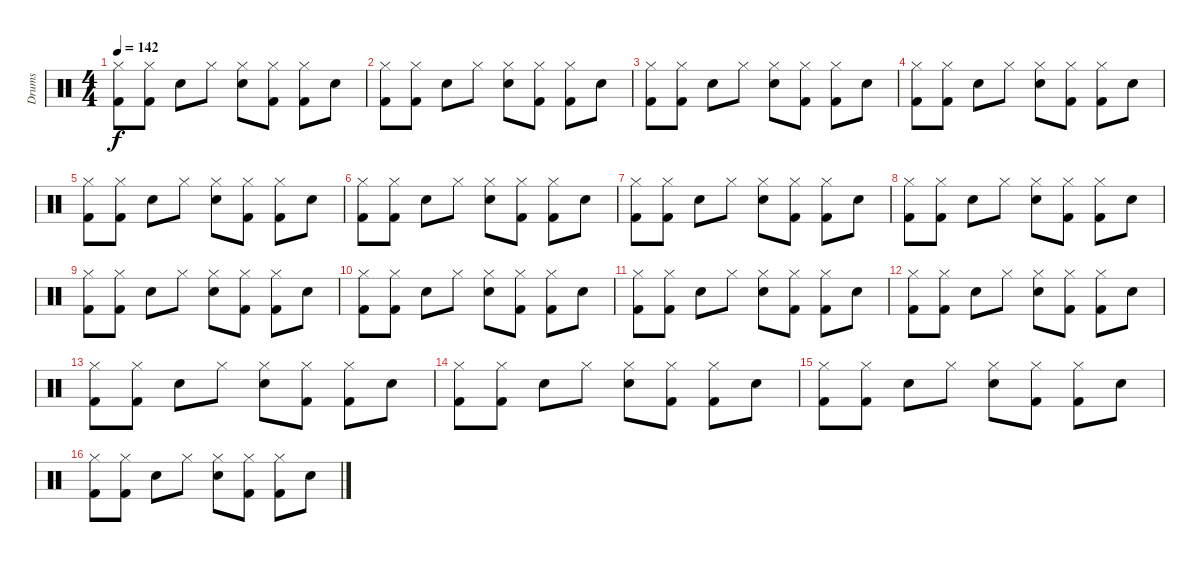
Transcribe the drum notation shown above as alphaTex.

\track ("Drums" "Drums") {instrument percussion}
\staff {score}
\articulation defaults
\ts (4 4)
\tempo 142
\clef neutral
\ks c
("Hi-Hat (closed)" "Kick (hit) 2").8{dy f} ("Hi-Hat (closed)" "Kick (hit) 2").8 "Electric Snare (hit)".8 "Hi-Hat (closed)".8 ("Hi-Hat (closed)" "Electric Snare (hit)").8 ("Hi-Hat (closed)" "Kick (hit) 2").8 ("Hi-Hat (closed)" "Kick (hit) 2").8 "Electric Snare (hit)".8 |
("Hi-Hat (closed)" "Kick (hit) 2").8 ("Hi-Hat (closed)" "Kick (hit) 2").8 "Electric Snare (hit)".8 "Hi-Hat (closed)".8 ("Hi-Hat (closed)" "Electric Snare (hit)").8 ("Hi-Hat (closed)" "Kick (hit) 2").8 ("Hi-Hat (closed)" "Kick (hit) 2").8 "Electric Snare (hit)".8 |
("Hi-Hat (closed)" "Kick (hit) 2").8 ("Hi-Hat (closed)" "Kick (hit) 2").8 "Electric Snare (hit)".8 "Hi-Hat (closed)".8 ("Hi-Hat (closed)" "Electric Snare (hit)").8 ("Hi-Hat (closed)" "Kick (hit) 2").8 ("Hi-Hat (closed)" "Kick (hit) 2").8 "Electric Snare (hit)".8 |
("Hi-Hat (closed)" "Kick (hit) 2").8 ("Hi-Hat (closed)" "Kick (hit) 2").8 "Electric Snare (hit)".8 "Hi-Hat (closed)".8 ("Hi-Hat (closed)" "Electric Snare (hit)").8 ("Hi-Hat (closed)" "Kick (hit) 2").8 ("Hi-Hat (closed)" "Kick (hit) 2").8 "Electric Snare (hit)".8 |
("Hi-Hat (closed)" "Kick (hit) 2").8 ("Hi-Hat (closed)" "Kick (hit) 2").8 "Electric Snare (hit)".8 "Hi-Hat (closed)".8 ("Hi-Hat (closed)" "Electric Snare (hit)").8 ("Hi-Hat (closed)" "Kick (hit) 2").8 ("Hi-Hat (closed)" "Kick (hit) 2").8 "Electric Snare (hit)".8 |
("Hi-Hat (closed)" "Kick (hit) 2").8 ("Hi-Hat (closed)" "Kick (hit) 2").8 "Electric Snare (hit)".8 "Hi-Hat (closed)".8 ("Hi-Hat (closed)" "Electric Snare (hit)").8 ("Hi-Hat (closed)" "Kick (hit) 2").8 ("Hi-Hat (closed)" "Kick (hit) 2").8 "Electric Snare (hit)".8 |
("Hi-Hat (closed)" "Kick (hit) 2").8 ("Hi-Hat (closed)" "Kick (hit) 2").8 "Electric Snare (hit)".8 "Hi-Hat (closed)".8 ("Hi-Hat (closed)" "Electric Snare (hit)").8 ("Hi-Hat (closed)" "Kick (hit) 2").8 ("Hi-Hat (closed)" "Kick (hit) 2").8 "Electric Snare (hit)".8 |
("Hi-Hat (closed)" "Kick (hit) 2").8 ("Hi-Hat (closed)" "Kick (hit) 2").8 "Electric Snare (hit)".8 "Hi-Hat (closed)".8 ("Hi-Hat (closed)" "Electric Snare (hit)").8 ("Hi-Hat (closed)" "Kick (hit) 2").8 ("Hi-Hat (closed)" "Kick (hit) 2").8 "Electric Snare (hit)".8 |
("Hi-Hat (closed)" "Kick (hit) 2").8 ("Hi-Hat (closed)" "Kick (hit) 2").8 "Electric Snare (hit)".8 "Hi-Hat (closed)".8 ("Hi-Hat (closed)" "Electric Snare (hit)").8 ("Hi-Hat (closed)" "Kick (hit) 2").8 ("Hi-Hat (closed)" "Kick (hit) 2").8 "Electric Snare (hit)".8 |
("Hi-Hat (closed)" "Kick (hit) 2").8 ("Hi-Hat (closed)" "Kick (hit) 2").8 "Electric Snare (hit)".8 "Hi-Hat (closed)".8 ("Hi-Hat (closed)" "Electric Snare (hit)").8 ("Hi-Hat (closed)" "Kick (hit) 2").8 ("Hi-Hat (closed)" "Kick (hit) 2").8 "Electric Snare (hit)".8 |
("Hi-Hat (closed)" "Kick (hit) 2").8 ("Hi-Hat (closed)" "Kick (hit) 2").8 "Electric Snare (hit)".8 "Hi-Hat (closed)".8 ("Hi-Hat (closed)" "Electric Snare (hit)").8 ("Hi-Hat (closed)" "Kick (hit) 2").8 ("Hi-Hat (closed)" "Kick (hit) 2").8 "Electric Snare (hit)".8 |
("Hi-Hat (closed)" "Kick (hit) 2").8 ("Hi-Hat (closed)" "Kick (hit) 2").8 "Electric Snare (hit)".8 "Hi-Hat (closed)".8 ("Hi-Hat (closed)" "Electric Snare (hit)").8 ("Hi-Hat (closed)" "Kick (hit) 2").8 ("Hi-Hat (closed)" "Kick (hit) 2").8 "Electric Snare (hit)".8 |
("Hi-Hat (closed)" "Kick (hit) 2").8 ("Hi-Hat (closed)" "Kick (hit) 2").8 "Electric Snare (hit)".8 "Hi-Hat (closed)".8 ("Hi-Hat (closed)" "Electric Snare (hit)").8 ("Hi-Hat (closed)" "Kick (hit) 2").8 ("Hi-Hat (closed)" "Kick (hit) 2").8 "Electric Snare (hit)".8 |
("Hi-Hat (closed)" "Kick (hit) 2").8 ("Hi-Hat (closed)" "Kick (hit) 2").8 "Electric Snare (hit)".8 "Hi-Hat (closed)".8 ("Hi-Hat (closed)" "Electric Snare (hit)").8 ("Hi-Hat (closed)" "Kick (hit) 2").8 ("Hi-Hat (closed)" "Kick (hit) 2").8 "Electric Snare (hit)".8 |
("Hi-Hat (closed)" "Kick (hit) 2").8 ("Hi-Hat (closed)" "Kick (hit) 2").8 "Electric Snare (hit)".8 "Hi-Hat (closed)".8 ("Hi-Hat (closed)" "Electric Snare (hit)").8 ("Hi-Hat (closed)" "Kick (hit) 2").8 ("Hi-Hat (closed)" "Kick (hit) 2").8 "Electric Snare (hit)".8 |
("Hi-Hat (closed)" "Kick (hit) 2").8 ("Hi-Hat (closed)" "Kick (hit) 2").8 "Electric Snare (hit)".8 "Hi-Hat (closed)".8 ("Hi-Hat (closed)" "Electric Snare (hit)").8 ("Hi-Hat (closed)" "Kick (hit) 2").8 ("Hi-Hat (closed)" "Kick (hit) 2").8 "Electric Snare (hit)".8
